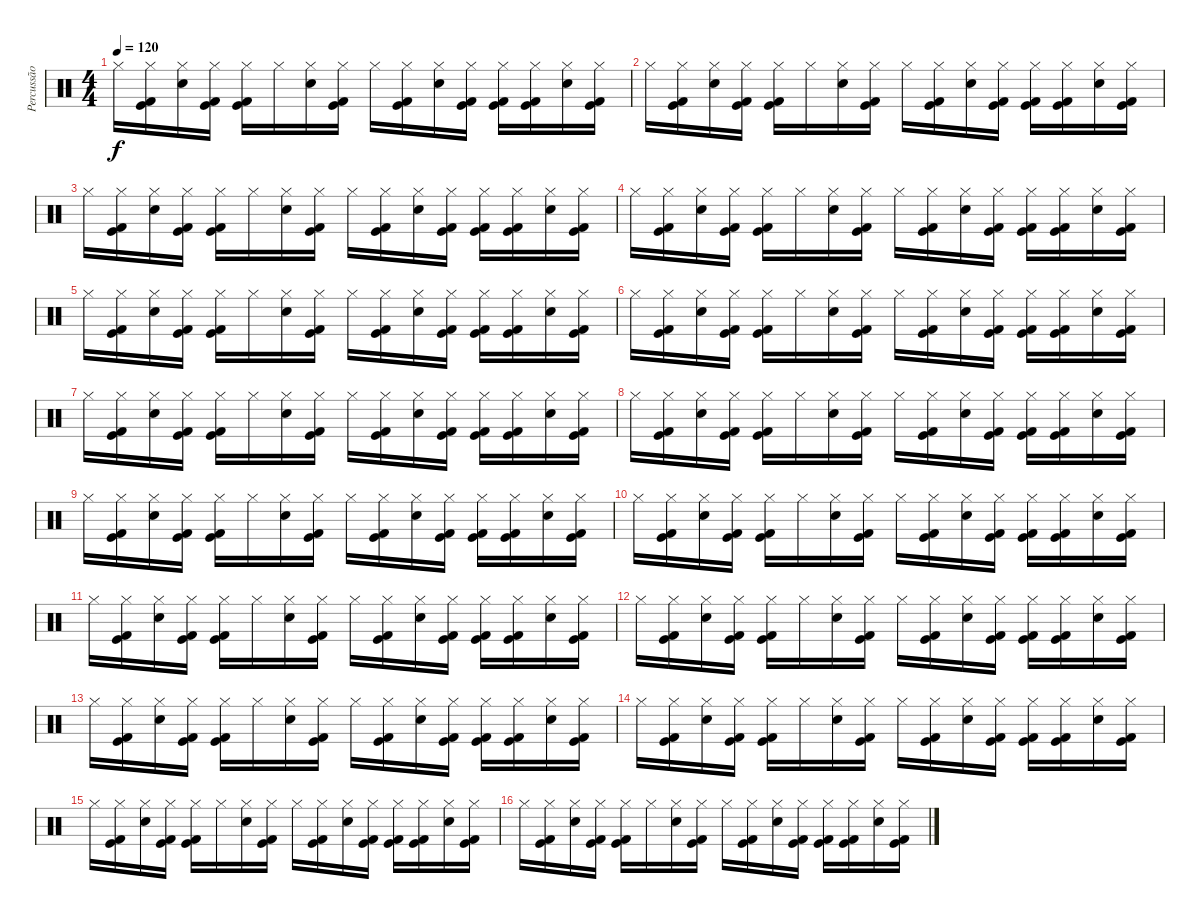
\track ("Percussão" "Percussão") {instrument percussion}
\staff {score}
\articulation defaults
\ts (4 4)
\tempo 120
\clef neutral
\ks c "Hi-Hat (closed)".16{dy f}
("Hi-Hat (closed)" "Kick (hit)" "Kick (hit) 2").16 ("Hi-Hat (closed)" "Electric Snare (hit)").16 ("Hi-Hat (closed)" "Kick (hit)" "Kick (hit) 2").16 ("Hi-Hat (closed)" "Kick (hit)" "Kick (hit) 2").16 "Hi-Hat (closed)".16 ("Hi-Hat (closed)" "Electric Snare (hit)").16 ("Hi-Hat (closed)" "Kick (hit)" "Kick (hit) 2").16 "Hi-Hat (closed)".16 ("Hi-Hat (closed)" "Kick (hit)" "Kick (hit) 2").16 ("Hi-Hat (closed)" "Electric Snare (hit)").16 ("Hi-Hat (closed)" "Kick (hit)" "Kick (hit) 2").16 ("Hi-Hat (closed)" "Kick (hit)" "Kick (hit) 2").16 ("Hi-Hat (closed)" "Kick (hit)" "Kick (hit) 2").16 ("Hi-Hat (closed)" "Electric Snare (hit)").16 ("Hi-Hat (closed)" "Kick (hit)" "Kick (hit) 2").16 |
"Hi-Hat (closed)".16 ("Hi-Hat (closed)" "Kick (hit)" "Kick (hit) 2").16 ("Hi-Hat (closed)" "Electric Snare (hit)").16 ("Hi-Hat (closed)" "Kick (hit)" "Kick (hit) 2").16 ("Hi-Hat (closed)" "Kick (hit)" "Kick (hit) 2").16 "Hi-Hat (closed)".16 ("Hi-Hat (closed)" "Electric Snare (hit)").16 ("Hi-Hat (closed)" "Kick (hit)" "Kick (hit) 2").16 "Hi-Hat (closed)".16 ("Hi-Hat (closed)" "Kick (hit)" "Kick (hit) 2").16 ("Hi-Hat (closed)" "Electric Snare (hit)").16 ("Hi-Hat (closed)" "Kick (hit)" "Kick (hit) 2").16 ("Hi-Hat (closed)" "Kick (hit)" "Kick (hit) 2").16 ("Hi-Hat (closed)" "Kick (hit)" "Kick (hit) 2").16 ("Hi-Hat (closed)" "Electric Snare (hit)").16 ("Hi-Hat (closed)" "Kick (hit)" "Kick (hit) 2").16 |
"Hi-Hat (closed)".16 ("Hi-Hat (closed)" "Kick (hit)" "Kick (hit) 2").16 ("Hi-Hat (closed)" "Electric Snare (hit)").16 ("Hi-Hat (closed)" "Kick (hit)" "Kick (hit) 2").16 ("Hi-Hat (closed)" "Kick (hit)" "Kick (hit) 2").16 "Hi-Hat (closed)".16 ("Hi-Hat (closed)" "Electric Snare (hit)").16 ("Hi-Hat (closed)" "Kick (hit)" "Kick (hit) 2").16 "Hi-Hat (closed)".16 ("Hi-Hat (closed)" "Kick (hit)" "Kick (hit) 2").16 ("Hi-Hat (closed)" "Electric Snare (hit)").16 ("Hi-Hat (closed)" "Kick (hit)" "Kick (hit) 2").16 ("Hi-Hat (closed)" "Kick (hit)" "Kick (hit) 2").16 ("Hi-Hat (closed)" "Kick (hit)" "Kick (hit) 2").16 ("Hi-Hat (closed)" "Electric Snare (hit)").16 ("Hi-Hat (closed)" "Kick (hit)" "Kick (hit) 2").16 |
"Hi-Hat (closed)".16 ("Hi-Hat (closed)" "Kick (hit)" "Kick (hit) 2").16 ("Hi-Hat (closed)" "Electric Snare (hit)").16 ("Hi-Hat (closed)" "Kick (hit)" "Kick (hit) 2").16 ("Hi-Hat (closed)" "Kick (hit)" "Kick (hit) 2").16 "Hi-Hat (closed)".16 ("Hi-Hat (closed)" "Electric Snare (hit)").16 ("Hi-Hat (closed)" "Kick (hit)" "Kick (hit) 2").16 "Hi-Hat (closed)".16 ("Hi-Hat (closed)" "Kick (hit)" "Kick (hit) 2").16 ("Hi-Hat (closed)" "Electric Snare (hit)").16 ("Hi-Hat (closed)" "Kick (hit)" "Kick (hit) 2").16 ("Hi-Hat (closed)" "Kick (hit)" "Kick (hit) 2").16 ("Hi-Hat (closed)" "Kick (hit)" "Kick (hit) 2").16 ("Hi-Hat (closed)" "Electric Snare (hit)").16 ("Hi-Hat (closed)" "Kick (hit)" "Kick (hit) 2").16 |
"Hi-Hat (closed)".16 ("Hi-Hat (closed)" "Kick (hit)" "Kick (hit) 2").16 ("Hi-Hat (closed)" "Electric Snare (hit)").16 ("Hi-Hat (closed)" "Kick (hit)" "Kick (hit) 2").16 ("Hi-Hat (closed)" "Kick (hit)" "Kick (hit) 2").16 "Hi-Hat (closed)".16 ("Hi-Hat (closed)" "Electric Snare (hit)").16 ("Hi-Hat (closed)" "Kick (hit)" "Kick (hit) 2").16 "Hi-Hat (closed)".16 ("Hi-Hat (closed)" "Kick (hit)" "Kick (hit) 2").16 ("Hi-Hat (closed)" "Electric Snare (hit)").16 ("Hi-Hat (closed)" "Kick (hit)" "Kick (hit) 2").16 ("Hi-Hat (closed)" "Kick (hit)" "Kick (hit) 2").16 ("Hi-Hat (closed)" "Kick (hit)" "Kick (hit) 2").16 ("Hi-Hat (closed)" "Electric Snare (hit)").16 ("Hi-Hat (closed)" "Kick (hit)" "Kick (hit) 2").16 |
"Hi-Hat (closed)".16 ("Hi-Hat (closed)" "Kick (hit)" "Kick (hit) 2").16 ("Hi-Hat (closed)" "Electric Snare (hit)").16 ("Hi-Hat (closed)" "Kick (hit)" "Kick (hit) 2").16 ("Hi-Hat (closed)" "Kick (hit)" "Kick (hit) 2").16 "Hi-Hat (closed)".16 ("Hi-Hat (closed)" "Electric Snare (hit)").16 ("Hi-Hat (closed)" "Kick (hit)" "Kick (hit) 2").16 "Hi-Hat (closed)".16 ("Hi-Hat (closed)" "Kick (hit)" "Kick (hit) 2").16 ("Hi-Hat (closed)" "Electric Snare (hit)").16 ("Hi-Hat (closed)" "Kick (hit)" "Kick (hit) 2").16 ("Hi-Hat (closed)" "Kick (hit)" "Kick (hit) 2").16 ("Hi-Hat (closed)" "Kick (hit)" "Kick (hit) 2").16 ("Hi-Hat (closed)" "Electric Snare (hit)").16 ("Hi-Hat (closed)" "Kick (hit)" "Kick (hit) 2").16 |
"Hi-Hat (closed)".16 ("Hi-Hat (closed)" "Kick (hit)" "Kick (hit) 2").16 ("Hi-Hat (closed)" "Electric Snare (hit)").16 ("Hi-Hat (closed)" "Kick (hit)" "Kick (hit) 2").16 ("Hi-Hat (closed)" "Kick (hit)" "Kick (hit) 2").16 "Hi-Hat (closed)".16 ("Hi-Hat (closed)" "Electric Snare (hit)").16 ("Hi-Hat (closed)" "Kick (hit)" "Kick (hit) 2").16 "Hi-Hat (closed)".16 ("Hi-Hat (closed)" "Kick (hit)" "Kick (hit) 2").16 ("Hi-Hat (closed)" "Electric Snare (hit)").16 ("Hi-Hat (closed)" "Kick (hit)" "Kick (hit) 2").16 ("Hi-Hat (closed)" "Kick (hit)" "Kick (hit) 2").16 ("Hi-Hat (closed)" "Kick (hit)" "Kick (hit) 2").16 ("Hi-Hat (closed)" "Electric Snare (hit)").16 ("Hi-Hat (closed)" "Kick (hit)" "Kick (hit) 2").16 |
"Hi-Hat (closed)".16 ("Hi-Hat (closed)" "Kick (hit)" "Kick (hit) 2").16 ("Hi-Hat (closed)" "Electric Snare (hit)").16 ("Hi-Hat (closed)" "Kick (hit)" "Kick (hit) 2").16 ("Hi-Hat (closed)" "Kick (hit)" "Kick (hit) 2").16 "Hi-Hat (closed)".16 ("Hi-Hat (closed)" "Electric Snare (hit)").16 ("Hi-Hat (closed)" "Kick (hit)" "Kick (hit) 2").16 "Hi-Hat (closed)".16 ("Hi-Hat (closed)" "Kick (hit)" "Kick (hit) 2").16 ("Hi-Hat (closed)" "Electric Snare (hit)").16 ("Hi-Hat (closed)" "Kick (hit)" "Kick (hit) 2").16 ("Hi-Hat (closed)" "Kick (hit)" "Kick (hit) 2").16 ("Hi-Hat (closed)" "Kick (hit)" "Kick (hit) 2").16 ("Hi-Hat (closed)" "Electric Snare (hit)").16 ("Hi-Hat (closed)" "Kick (hit)" "Kick (hit) 2").16 |
"Hi-Hat (closed)".16 ("Hi-Hat (closed)" "Kick (hit)" "Kick (hit) 2").16 ("Hi-Hat (closed)" "Electric Snare (hit)").16 ("Hi-Hat (closed)" "Kick (hit)" "Kick (hit) 2").16 ("Hi-Hat (closed)" "Kick (hit)" "Kick (hit) 2").16 "Hi-Hat (closed)".16 ("Hi-Hat (closed)" "Electric Snare (hit)").16 ("Hi-Hat (closed)" "Kick (hit)" "Kick (hit) 2").16 "Hi-Hat (closed)".16 ("Hi-Hat (closed)" "Kick (hit)" "Kick (hit) 2").16 ("Hi-Hat (closed)" "Electric Snare (hit)").16 ("Hi-Hat (closed)" "Kick (hit)" "Kick (hit) 2").16 ("Hi-Hat (closed)" "Kick (hit)" "Kick (hit) 2").16 ("Hi-Hat (closed)" "Kick (hit)" "Kick (hit) 2").16 ("Hi-Hat (closed)" "Electric Snare (hit)").16 ("Hi-Hat (closed)" "Kick (hit)" "Kick (hit) 2").16 |
"Hi-Hat (closed)".16 ("Hi-Hat (closed)" "Kick (hit)" "Kick (hit) 2").16 ("Hi-Hat (closed)" "Electric Snare (hit)").16 ("Hi-Hat (closed)" "Kick (hit)" "Kick (hit) 2").16 ("Hi-Hat (closed)" "Kick (hit)" "Kick (hit) 2").16 "Hi-Hat (closed)".16 ("Hi-Hat (closed)" "Electric Snare (hit)").16 ("Hi-Hat (closed)" "Kick (hit)" "Kick (hit) 2").16 "Hi-Hat (closed)".16 ("Hi-Hat (closed)" "Kick (hit)" "Kick (hit) 2").16 ("Hi-Hat (closed)" "Electric Snare (hit)").16 ("Hi-Hat (closed)" "Kick (hit)" "Kick (hit) 2").16 ("Hi-Hat (closed)" "Kick (hit)" "Kick (hit) 2").16 ("Hi-Hat (closed)" "Kick (hit)" "Kick (hit) 2").16 ("Hi-Hat (closed)" "Electric Snare (hit)").16 ("Hi-Hat (closed)" "Kick (hit)" "Kick (hit) 2").16 |
"Hi-Hat (closed)".16 ("Hi-Hat (closed)" "Kick (hit)" "Kick (hit) 2").16 ("Hi-Hat (closed)" "Electric Snare (hit)").16 ("Hi-Hat (closed)" "Kick (hit)" "Kick (hit) 2").16 ("Hi-Hat (closed)" "Kick (hit)" "Kick (hit) 2").16 "Hi-Hat (closed)".16 ("Hi-Hat (closed)" "Electric Snare (hit)").16 ("Hi-Hat (closed)" "Kick (hit)" "Kick (hit) 2").16 "Hi-Hat (closed)".16 ("Hi-Hat (closed)" "Kick (hit)" "Kick (hit) 2").16 ("Hi-Hat (closed)" "Electric Snare (hit)").16 ("Hi-Hat (closed)" "Kick (hit)" "Kick (hit) 2").16 ("Hi-Hat (closed)" "Kick (hit)" "Kick (hit) 2").16 ("Hi-Hat (closed)" "Kick (hit)" "Kick (hit) 2").16 ("Hi-Hat (closed)" "Electric Snare (hit)").16 ("Hi-Hat (closed)" "Kick (hit)" "Kick (hit) 2").16 |
"Hi-Hat (closed)".16 ("Hi-Hat (closed)" "Kick (hit)" "Kick (hit) 2").16 ("Hi-Hat (closed)" "Electric Snare (hit)").16 ("Hi-Hat (closed)" "Kick (hit)" "Kick (hit) 2").16 ("Hi-Hat (closed)" "Kick (hit)" "Kick (hit) 2").16 "Hi-Hat (closed)".16 ("Hi-Hat (closed)" "Electric Snare (hit)").16 ("Hi-Hat (closed)" "Kick (hit)" "Kick (hit) 2").16 "Hi-Hat (closed)".16 ("Hi-Hat (closed)" "Kick (hit)" "Kick (hit) 2").16 ("Hi-Hat (closed)" "Electric Snare (hit)").16 ("Hi-Hat (closed)" "Kick (hit)" "Kick (hit) 2").16 ("Hi-Hat (closed)" "Kick (hit)" "Kick (hit) 2").16 ("Hi-Hat (closed)" "Kick (hit)" "Kick (hit) 2").16 ("Hi-Hat (closed)" "Electric Snare (hit)").16 ("Hi-Hat (closed)" "Kick (hit)" "Kick (hit) 2").16 |
"Hi-Hat (closed)".16 ("Hi-Hat (closed)" "Kick (hit)" "Kick (hit) 2").16 ("Hi-Hat (closed)" "Electric Snare (hit)").16 ("Hi-Hat (closed)" "Kick (hit)" "Kick (hit) 2").16 ("Hi-Hat (closed)" "Kick (hit)" "Kick (hit) 2").16 "Hi-Hat (closed)".16 ("Hi-Hat (closed)" "Electric Snare (hit)").16 ("Hi-Hat (closed)" "Kick (hit)" "Kick (hit) 2").16 "Hi-Hat (closed)".16 ("Hi-Hat (closed)" "Kick (hit)" "Kick (hit) 2").16 ("Hi-Hat (closed)" "Electric Snare (hit)").16 ("Hi-Hat (closed)" "Kick (hit)" "Kick (hit) 2").16 ("Hi-Hat (closed)" "Kick (hit)" "Kick (hit) 2").16 ("Hi-Hat (closed)" "Kick (hit)" "Kick (hit) 2").16 ("Hi-Hat (closed)" "Electric Snare (hit)").16 ("Hi-Hat (closed)" "Kick (hit)" "Kick (hit) 2").16 |
"Hi-Hat (closed)".16 ("Hi-Hat (closed)" "Kick (hit)" "Kick (hit) 2").16 ("Hi-Hat (closed)" "Electric Snare (hit)").16 ("Hi-Hat (closed)" "Kick (hit)" "Kick (hit) 2").16 ("Hi-Hat (closed)" "Kick (hit)" "Kick (hit) 2").16 "Hi-Hat (closed)".16 ("Hi-Hat (closed)" "Electric Snare (hit)").16 ("Hi-Hat (closed)" "Kick (hit)" "Kick (hit) 2").16 "Hi-Hat (closed)".16 ("Hi-Hat (closed)" "Kick (hit)" "Kick (hit) 2").16 ("Hi-Hat (closed)" "Electric Snare (hit)").16 ("Hi-Hat (closed)" "Kick (hit)" "Kick (hit) 2").16 ("Hi-Hat (closed)" "Kick (hit)" "Kick (hit) 2").16 ("Hi-Hat (closed)" "Kick (hit)" "Kick (hit) 2").16 ("Hi-Hat (closed)" "Electric Snare (hit)").16 ("Hi-Hat (closed)" "Kick (hit)" "Kick (hit) 2").16 |
"Hi-Hat (closed)".16 ("Hi-Hat (closed)" "Kick (hit)" "Kick (hit) 2").16 ("Hi-Hat (closed)" "Electric Snare (hit)").16 ("Hi-Hat (closed)" "Kick (hit)" "Kick (hit) 2").16 ("Hi-Hat (closed)" "Kick (hit)" "Kick (hit) 2").16 "Hi-Hat (closed)".16 ("Hi-Hat (closed)" "Electric Snare (hit)").16 ("Hi-Hat (closed)" "Kick (hit)" "Kick (hit) 2").16 "Hi-Hat (closed)".16 ("Hi-Hat (closed)" "Kick (hit)" "Kick (hit) 2").16 ("Hi-Hat (closed)" "Electric Snare (hit)").16 ("Hi-Hat (closed)" "Kick (hit)" "Kick (hit) 2").16 ("Hi-Hat (closed)" "Kick (hit)" "Kick (hit) 2").16 ("Hi-Hat (closed)" "Kick (hit)" "Kick (hit) 2").16 ("Hi-Hat (closed)" "Electric Snare (hit)").16 ("Hi-Hat (closed)" "Kick (hit)" "Kick (hit) 2").16 |
"Hi-Hat (closed)".16 ("Hi-Hat (closed)" "Kick (hit)" "Kick (hit) 2").16 ("Hi-Hat (closed)" "Electric Snare (hit)").16 ("Hi-Hat (closed)" "Kick (hit)" "Kick (hit) 2").16 ("Hi-Hat (closed)" "Kick (hit)" "Kick (hit) 2").16 "Hi-Hat (closed)".16 ("Hi-Hat (closed)" "Electric Snare (hit)").16 ("Hi-Hat (closed)" "Kick (hit)" "Kick (hit) 2").16 "Hi-Hat (closed)".16 ("Hi-Hat (closed)" "Kick (hit)" "Kick (hit) 2").16 ("Hi-Hat (closed)" "Electric Snare (hit)").16 ("Hi-Hat (closed)" "Kick (hit)" "Kick (hit) 2").16 ("Hi-Hat (closed)" "Kick (hit)" "Kick (hit) 2").16 ("Hi-Hat (closed)" "Kick (hit)" "Kick (hit) 2").16 ("Hi-Hat (closed)" "Electric Snare (hit)").16 ("Hi-Hat (closed)" "Kick (hit)" "Kick (hit) 2").16
